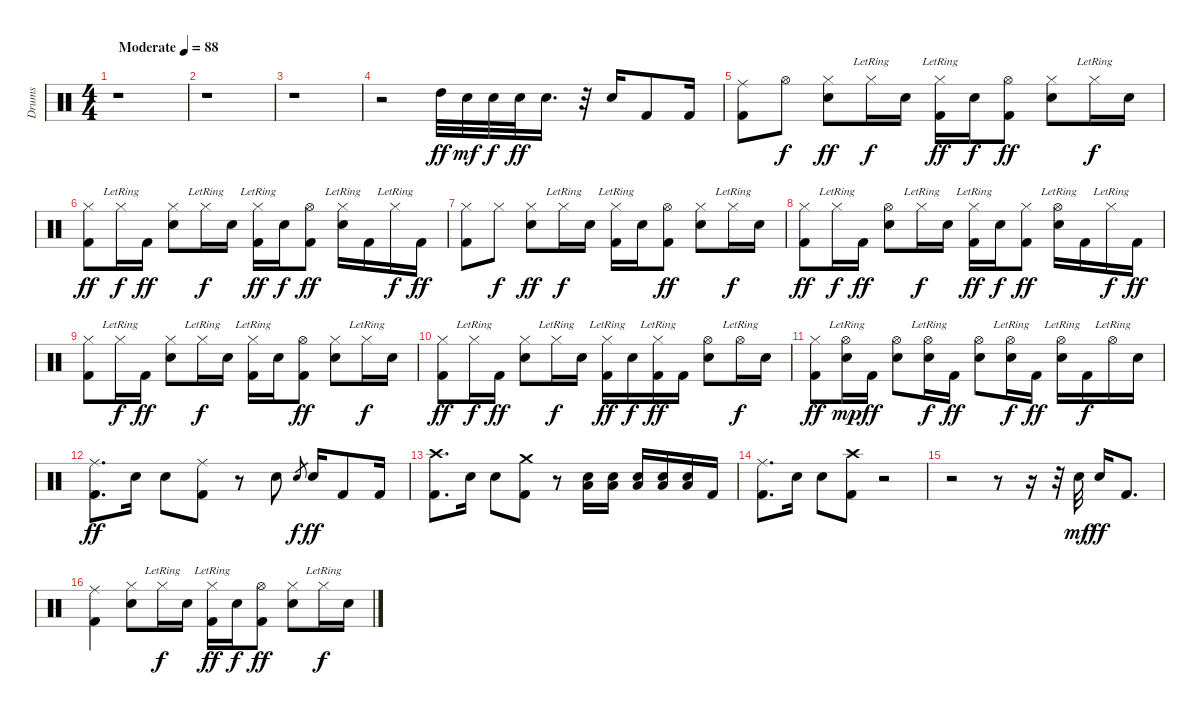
\track ("Drums" "Drums") {instrument percussion}
\staff {score}
\articulation defaults
\ts (4 4)
\tempo (88 "Moderate")
\clef neutral
\ks c
r.1{dy ff} |
r.1 |
r.1 |
r.2 "High Tom (hit)".32 "Electric Snare (hit)".32{dy mf} "Electric Snare (hit)".32{dy f} "Electric Snare (hit)".32{dy ff} "Electric Snare (hit)".16{d} r.32 "Electric Snare (hit)".16 "Kick (hit) 2".8 "Kick (hit) 2".16 |
("Ride (middle)" "Kick (hit) 2").8 "Hi-Hat (open)".8{dy f} ("Hi-Hat (closed)" "Electric Snare (hit)").8{dy ff} "Hi-Hat (closed)"{lr}.16{dy f} "Electric Snare (hit)".16 ("Hi-Hat (closed)"{lr} "Kick (hit) 2").16{dy ff} "Electric Snare (hit)".16{dy f} ("Hi-Hat (open)" "Kick (hit) 2").8{dy ff} ("Hi-Hat (closed)" "Electric Snare (hit)").8 "Hi-Hat (closed)"{lr}.16{dy f} "Electric Snare (hit)".16 |
("Hi-Hat (closed)" "Kick (hit) 2").8{dy ff} "Hi-Hat (closed)"{lr}.16{dy f} "Kick (hit) 2".16{dy ff} ("Hi-Hat (closed)" "Electric Snare (hit)").8 "Hi-Hat (closed)"{lr}.16{dy f} "Electric Snare (hit)".16 ("Hi-Hat (closed)"{lr} "Kick (hit) 2").16{dy ff} "Electric Snare (hit)".16{dy f} ("Hi-Hat (open)" "Kick (hit) 2").8{dy ff} ("Hi-Hat (closed)"{lr} "Electric Snare (hit)").16 "Kick (hit) 2".16 "Hi-Hat (closed)"{lr}.16{dy f} "Kick (hit) 2".16{dy ff} |
("Hi-Hat (closed)" "Kick (hit) 2").8 "Hi-Hat (closed)".8{dy f} ("Hi-Hat (closed)" "Electric Snare (hit)").8{dy ff} "Hi-Hat (closed)"{lr}.16{dy f} "Electric Snare (hit)".16 ("Hi-Hat (closed)"{lr} "Kick (hit) 2").16 "Electric Snare (hit)".16 ("Hi-Hat (open)" "Kick (hit) 2").8{dy ff} ("Hi-Hat (closed)" "Electric Snare (hit)").8 "Hi-Hat (closed)"{lr}.16{dy f} "Electric Snare (hit)".16 |
("Hi-Hat (closed)" "Kick (hit) 2").8{dy ff} "Hi-Hat (closed)"{lr}.16{dy f} "Kick (hit) 2".16{dy ff} ("Hi-Hat (open)" "Electric Snare (hit)").8 "Hi-Hat (closed)"{lr}.16{dy f} "Electric Snare (hit)".16 ("Hi-Hat (closed)"{lr} "Kick (hit) 2").16{dy ff} "Electric Snare (hit)".16{dy f} ("Hi-Hat (closed)" "Kick (hit) 2").8{dy ff} ("Hi-Hat (open)"{lr} "Electric Snare (hit)").16 "Kick (hit) 2".16 "Hi-Hat (closed)"{lr}.16{dy f} "Kick (hit) 2".16{dy ff} |
("Hi-Hat (closed)" "Kick (hit) 2").8 "Hi-Hat (closed)"{lr}.16{dy f} "Kick (hit) 2".16{dy ff} ("Hi-Hat (closed)" "Electric Snare (hit)").8 "Hi-Hat (closed)"{lr}.16{dy f} "Electric Snare (hit)".16 ("Hi-Hat (closed)"{lr} "Kick (hit) 2").16 "Electric Snare (hit)".16 ("Hi-Hat (open)" "Kick (hit) 2").8{dy ff} ("Hi-Hat (closed)" "Electric Snare (hit)").8 "Hi-Hat (closed)"{lr}.16{dy f} "Electric Snare (hit)".16 |
("Hi-Hat (closed)" "Kick (hit) 2").8{dy ff} "Hi-Hat (closed)"{lr}.16{dy f} "Kick (hit) 2".16{dy ff} ("Hi-Hat (closed)" "Electric Snare (hit)").8 "Hi-Hat (closed)"{lr}.16{dy f} "Electric Snare (hit)".16 ("Hi-Hat (closed)"{lr} "Kick (hit) 2").16{dy ff} "Electric Snare (hit)".16{dy f} ("Hi-Hat (closed)"{lr} "Kick (hit) 2").16{dy ff} "Kick (hit) 2".16 ("Hi-Hat (open)" "Electric Snare (hit)").8 "Hi-Hat (open)"{lr}.16{dy f} "Electric Snare (hit)".16 |
("Hi-Hat (closed)" "Kick (hit) 2").8{dy ff} ("Hi-Hat (open)"{lr} "Electric Snare (hit)").16{dy mp} "Kick (hit) 2".16{dy ff} ("Hi-Hat (open)" "Electric Snare (hit)").8 ("Hi-Hat (open)"{lr} "Electric Snare (hit)").16{dy f} "Kick (hit) 2".16{dy ff} ("Hi-Hat (open)" "Electric Snare (hit)").8 ("Hi-Hat (open)"{lr} "Electric Snare (hit)").16{dy f} "Kick (hit) 2".16{dy ff} ("Hi-Hat (open)"{lr} "Electric Snare (hit)").16 "Kick (hit) 2".16{dy f} "Hi-Hat (open)"{lr}.16 "Electric Snare (hit)".16 |
("Ride (middle)" "Kick (hit) 2").8{d dy ff} "Electric Snare (hit)".16 "Electric Snare (hit)".8 ("Ride (middle)" "Kick (hit) 2").8 r.8 "Electric Snare (hit)".8 "Electric Snare (hit)".8{gr dy f} "Electric Snare (hit)".16{dy ff} "Kick (hit) 2".8 "Kick (hit) 2".16 |
("Crash high (hit)" "Kick (hit) 2").8{d} "Electric Snare (hit)".16 "Electric Snare (hit)".8 ("Crash medium (hit)" "Kick (hit) 2").8 r.8 ("Electric Snare (hit)" "Low Tom (hit)").16 ("Electric Snare (hit)" "Low Tom (hit)").16 ("Electric Snare (hit)" "Low Tom (hit)").16 ("Electric Snare (hit)" "Low Tom (hit)").16 ("Electric Snare (hit)" "Low Tom (hit)").16 "Kick (hit) 2".16 |
("Ride (middle)" "Kick (hit) 2").8{d} "Electric Snare (hit)".16 "Electric Snare (hit)".8 ("Crash high (hit)" "Kick (hit) 2").8 r.2 |
r.2 r.8 r.16 r.32 "Electric Snare (hit)".32{dy mf} "Electric Snare (hit)".16{dy ff} "Kick (hit) 2".8{d} |
("Ride (middle)" "Kick (hit) 2").4 ("Hi-Hat (closed)" "Electric Snare (hit)").8 "Hi-Hat (closed)"{lr}.16{dy f} "Electric Snare (hit)".16 ("Hi-Hat (closed)"{lr} "Kick (hit) 2").16{dy ff} "Electric Snare (hit)".16{dy f} ("Hi-Hat (open)" "Kick (hit) 2").8{dy ff} ("Hi-Hat (closed)" "Electric Snare (hit)").8 "Hi-Hat (closed)"{lr}.16{dy f} "Electric Snare (hit)".16
